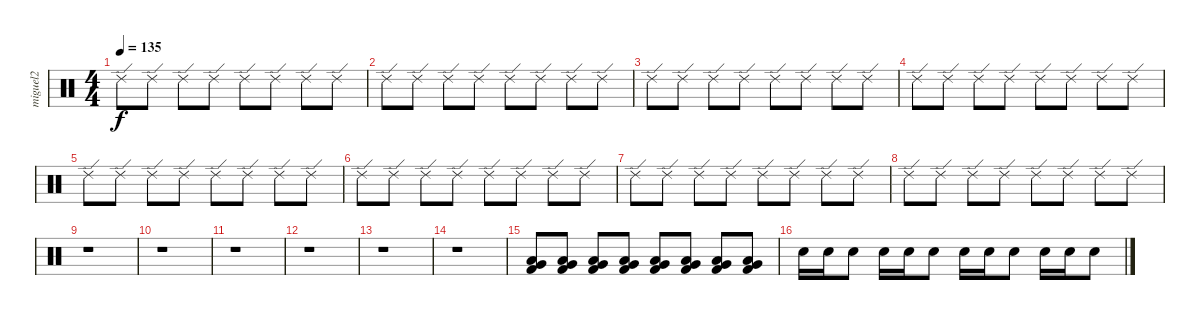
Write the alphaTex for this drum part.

\track ("miguel2" "miguel2") {instrument percussion}
\staff {score}
\articulation defaults
\ts (4 4)
\tempo 135
\clef neutral
\ks c "Ride (edge) 2".8{dy f} "Ride (edge) 2".8 "Ride (edge) 2".8 "Ride (edge) 2".8 "Ride (edge) 2".8 "Ride (edge) 2".8 "Ride (edge) 2".8 "Ride (edge) 2".8
|
"Ride (edge) 2".8 "Ride (edge) 2".8 "Ride (edge) 2".8 "Ride (edge) 2".8 "Ride (edge) 2".8 "Ride (edge) 2".8 "Ride (edge) 2".8 "Ride (edge) 2".8 |
"Ride (edge) 2".8 "Ride (edge) 2".8 "Ride (edge) 2".8 "Ride (edge) 2".8 "Ride (edge) 2".8 "Ride (edge) 2".8 "Ride (edge) 2".8 "Ride (edge) 2".8 |
"Ride (edge) 2".8 "Ride (edge) 2".8 "Ride (edge) 2".8 "Ride (edge) 2".8 "Ride (edge) 2".8 "Ride (edge) 2".8 "Ride (edge) 2".8 "Ride (edge) 2".8 |
"Ride (edge) 2".8 "Ride (edge) 2".8 "Ride (edge) 2".8 "Ride (edge) 2".8 "Ride (edge) 2".8 "Ride (edge) 2".8 "Ride (edge) 2".8 "Ride (edge) 2".8 |
"Ride (edge) 2".8 "Ride (edge) 2".8 "Ride (edge) 2".8 "Ride (edge) 2".8 "Ride (edge) 2".8 "Ride (edge) 2".8 "Ride (edge) 2".8 "Ride (edge) 2".8 |
"Ride (edge) 2".8 "Ride (edge) 2".8 "Ride (edge) 2".8 "Ride (edge) 2".8 "Ride (edge) 2".8 "Ride (edge) 2".8 "Ride (edge) 2".8 "Ride (edge) 2".8 |
"Ride (edge) 2".8 "Ride (edge) 2".8 "Ride (edge) 2".8 "Ride (edge) 2".8 "Ride (edge) 2".8 "Ride (edge) 2".8 "Ride (edge) 2".8 "Ride (edge) 2".8 |
r.1 |
r.1 |
r.1 |
r.1 |
r.1 |
r.1 |
("Very Low Tom (hit)" "Low Floor Tom (hit)" "Kick (hit) 2").8 ("Very Low Tom (hit)" "Low Floor Tom (hit)" "Kick (hit) 2").8 ("Very Low Tom (hit)" "Low Floor Tom (hit)" "Kick (hit) 2").8 ("Very Low Tom (hit)" "Low Floor Tom (hit)" "Kick (hit) 2").8 ("Very Low Tom (hit)" "Low Floor Tom (hit)" "Kick (hit) 2").8 ("Very Low Tom (hit)" "Low Floor Tom (hit)" "Kick (hit) 2").8 ("Very Low Tom (hit)" "Low Floor Tom (hit)" "Kick (hit) 2").8 ("Very Low Tom (hit)" "Low Floor Tom (hit)" "Kick (hit) 2").8 |
"Snare (hit) 2".16 "Snare (hit) 2".16 "Snare (hit) 2".8 "Snare (hit) 2".16 "Snare (hit) 2".16 "Snare (hit) 2".8 "Snare (hit) 2".16 "Snare (hit) 2".16 "Snare (hit) 2".8 "Snare (hit) 2".16 "Snare (hit) 2".16 "Snare (hit) 2".8
